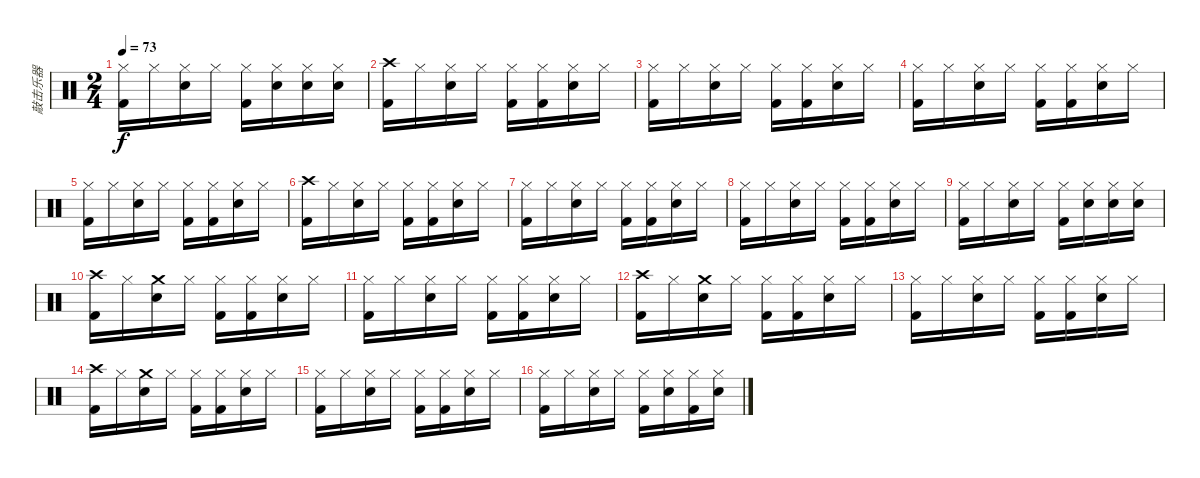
\track ("敲击乐器" "敲击乐器") {instrument percussion}
\staff {score}
\articulation defaults
\ts (2 4)
\tempo 73
\clef neutral
\ks c
("Hi-Hat (closed)" "Kick (hit) 2").16{dy f} "Hi-Hat (closed)".16 ("Hi-Hat (closed)" "Electric Snare (hit)").16 "Hi-Hat (closed)".16 ("Hi-Hat (closed)" "Kick (hit) 2").16 ("Hi-Hat (closed)" "Electric Snare (hit)").16 ("Hi-Hat (closed)" "Electric Snare (hit)").16 ("Hi-Hat (closed)" "Electric Snare (hit)").16 |
("Crash high (hit)" "Kick (hit) 2").16 "Hi-Hat (closed)".16 ("Hi-Hat (closed)" "Electric Snare (hit)").16 "Hi-Hat (closed)".16 ("Hi-Hat (closed)" "Kick (hit) 2").16 ("Hi-Hat (closed)" "Kick (hit) 2").16 ("Hi-Hat (closed)" "Electric Snare (hit)").16 "Hi-Hat (closed)".16 |
("Hi-Hat (closed)" "Kick (hit) 2").16 "Hi-Hat (closed)".16 ("Hi-Hat (closed)" "Electric Snare (hit)").16 "Hi-Hat (closed)".16 ("Hi-Hat (closed)" "Kick (hit) 2").16 ("Hi-Hat (closed)" "Kick (hit) 2").16 ("Hi-Hat (closed)" "Electric Snare (hit)").16 "Hi-Hat (closed)".16 |
("Hi-Hat (closed)" "Kick (hit) 2").16 "Hi-Hat (closed)".16 ("Hi-Hat (closed)" "Electric Snare (hit)").16 "Hi-Hat (closed)".16 ("Hi-Hat (closed)" "Kick (hit) 2").16 ("Hi-Hat (closed)" "Kick (hit) 2").16 ("Hi-Hat (closed)" "Electric Snare (hit)").16 "Hi-Hat (closed)".16 |
("Hi-Hat (closed)" "Kick (hit) 2").16 "Hi-Hat (closed)".16 ("Hi-Hat (closed)" "Electric Snare (hit)").16 "Hi-Hat (closed)".16 ("Hi-Hat (closed)" "Kick (hit) 2").16 ("Hi-Hat (closed)" "Kick (hit) 2").16 ("Hi-Hat (closed)" "Electric Snare (hit)").16 "Hi-Hat (closed)".16 |
("Crash high (hit)" "Kick (hit) 2").16 "Hi-Hat (closed)".16 ("Hi-Hat (closed)" "Electric Snare (hit)").16 "Hi-Hat (closed)".16 ("Hi-Hat (closed)" "Kick (hit) 2").16 ("Hi-Hat (closed)" "Kick (hit) 2").16 ("Hi-Hat (closed)" "Electric Snare (hit)").16 "Hi-Hat (closed)".16 |
("Hi-Hat (closed)" "Kick (hit) 2").16 "Hi-Hat (closed)".16 ("Hi-Hat (closed)" "Electric Snare (hit)").16 "Hi-Hat (closed)".16 ("Hi-Hat (closed)" "Kick (hit) 2").16 ("Hi-Hat (closed)" "Kick (hit) 2").16 ("Hi-Hat (closed)" "Electric Snare (hit)").16 "Hi-Hat (closed)".16 |
("Hi-Hat (closed)" "Kick (hit) 2").16 "Hi-Hat (closed)".16 ("Hi-Hat (closed)" "Electric Snare (hit)").16 "Hi-Hat (closed)".16 ("Hi-Hat (closed)" "Kick (hit) 2").16 ("Hi-Hat (closed)" "Kick (hit) 2").16 ("Hi-Hat (closed)" "Electric Snare (hit)").16 "Hi-Hat (closed)".16 |
("Hi-Hat (closed)" "Kick (hit) 2").16 "Hi-Hat (closed)".16 ("Hi-Hat (closed)" "Electric Snare (hit)").16 "Hi-Hat (closed)".16 ("Hi-Hat (closed)" "Kick (hit) 2").16 ("Hi-Hat (closed)" "Electric Snare (hit)").16 ("Hi-Hat (closed)" "Electric Snare (hit)").16 ("Hi-Hat (closed)" "Electric Snare (hit)").16 |
("Crash high (hit)" "Kick (hit) 2").16 "Hi-Hat (closed)".16 ("Crash medium (hit)" "Electric Snare (hit)").16 "Hi-Hat (closed)".16 ("Hi-Hat (closed)" "Kick (hit) 2").16 ("Hi-Hat (closed)" "Kick (hit) 2").16 ("Hi-Hat (closed)" "Electric Snare (hit)").16 "Hi-Hat (closed)".16 |
("Hi-Hat (closed)" "Kick (hit) 2").16 "Hi-Hat (closed)".16 ("Hi-Hat (closed)" "Electric Snare (hit)").16 "Hi-Hat (closed)".16 ("Hi-Hat (closed)" "Kick (hit) 2").16 ("Hi-Hat (closed)" "Kick (hit) 2").16 ("Hi-Hat (closed)" "Electric Snare (hit)").16 "Hi-Hat (closed)".16 |
("Crash high (hit)" "Kick (hit) 2").16 "Hi-Hat (closed)".16 ("Crash medium (hit)" "Electric Snare (hit)").16 "Hi-Hat (closed)".16 ("Hi-Hat (closed)" "Kick (hit) 2").16 ("Hi-Hat (closed)" "Kick (hit) 2").16 ("Hi-Hat (closed)" "Electric Snare (hit)").16 "Hi-Hat (closed)".16 |
("Hi-Hat (closed)" "Kick (hit) 2").16 "Hi-Hat (closed)".16 ("Hi-Hat (closed)" "Electric Snare (hit)").16 "Hi-Hat (closed)".16 ("Hi-Hat (closed)" "Kick (hit) 2").16 ("Hi-Hat (closed)" "Kick (hit) 2").16 ("Hi-Hat (closed)" "Electric Snare (hit)").16 "Hi-Hat (closed)".16 |
("Crash high (hit)" "Kick (hit) 2").16 "Hi-Hat (closed)".16 ("Crash medium (hit)" "Electric Snare (hit)").16 "Hi-Hat (closed)".16 ("Hi-Hat (closed)" "Kick (hit) 2").16 ("Hi-Hat (closed)" "Kick (hit) 2").16 ("Hi-Hat (closed)" "Electric Snare (hit)").16 "Hi-Hat (closed)".16 |
("Hi-Hat (closed)" "Kick (hit) 2").16 "Hi-Hat (closed)".16 ("Hi-Hat (closed)" "Electric Snare (hit)").16 "Hi-Hat (closed)".16 ("Hi-Hat (closed)" "Kick (hit) 2").16 ("Hi-Hat (closed)" "Kick (hit) 2").16 ("Hi-Hat (closed)" "Electric Snare (hit)").16 "Hi-Hat (closed)".16 |
("Hi-Hat (closed)" "Kick (hit) 2").16 "Hi-Hat (closed)".16 ("Hi-Hat (closed)" "Electric Snare (hit)").16 "Hi-Hat (closed)".16 ("Hi-Hat (closed)" "Kick (hit) 2").16 ("Hi-Hat (closed)" "Electric Snare (hit)").16 ("Hi-Hat (closed)" "Kick (hit) 2").16 ("Hi-Hat (closed)" "Electric Snare (hit)").16
